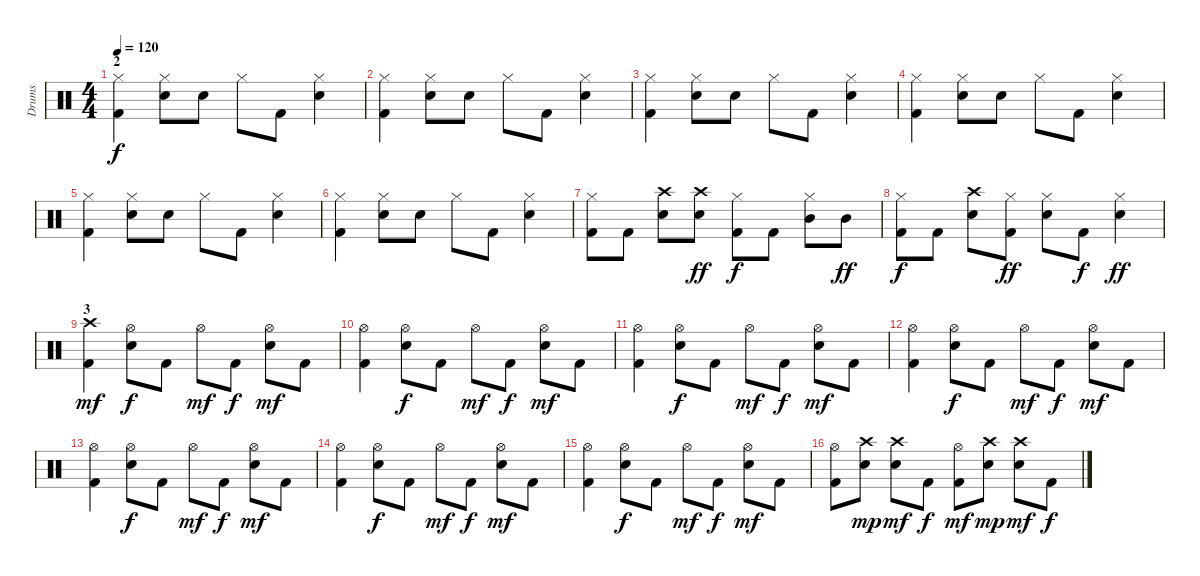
\track ("Drums" "Drums") {instrument percussion}
\staff {score}
\articulation defaults
\ts (4 4)
\section ("" "2")
\tempo 120
\clef neutral
\ks c
("Kick (hit) 2" "Hi-Hat (closed)").4{dy f} ("Hi-Hat (closed)" "Electric Snare (hit)").8 "Electric Snare (hit)".8 "Hi-Hat (closed)".8 "Kick (hit) 2".8 ("Electric Snare (hit)" "Hi-Hat (closed)").4 |
("Kick (hit) 2" "Hi-Hat (closed)").4 ("Hi-Hat (closed)" "Electric Snare (hit)").8 "Electric Snare (hit)".8 "Hi-Hat (closed)".8 "Kick (hit) 2".8 ("Electric Snare (hit)" "Hi-Hat (closed)").4 |
("Kick (hit) 2" "Hi-Hat (closed)").4 ("Hi-Hat (closed)" "Electric Snare (hit)").8 "Electric Snare (hit)".8 "Hi-Hat (closed)".8 "Kick (hit) 2".8 ("Electric Snare (hit)" "Hi-Hat (closed)").4 |
("Kick (hit) 2" "Hi-Hat (closed)").4 ("Hi-Hat (closed)" "Electric Snare (hit)").8 "Electric Snare (hit)".8 "Hi-Hat (closed)".8 "Kick (hit) 2".8 ("Electric Snare (hit)" "Hi-Hat (closed)").4 |
("Kick (hit) 2" "Hi-Hat (closed)").4 ("Hi-Hat (closed)" "Electric Snare (hit)").8 "Electric Snare (hit)".8 "Hi-Hat (closed)".8 "Kick (hit) 2".8 ("Electric Snare (hit)" "Hi-Hat (closed)").4 |
("Kick (hit) 2" "Hi-Hat (closed)").4 ("Hi-Hat (closed)" "Electric Snare (hit)").8 "Electric Snare (hit)".8 "Hi-Hat (closed)".8 "Kick (hit) 2".8 ("Electric Snare (hit)" "Hi-Hat (closed)").4 |
("Kick (hit) 2" "Hi-Hat (closed)").8 "Kick (hit) 2".8 ("Crash high (hit)" "Electric Snare (hit)").8 ("Crash high (hit)" "Electric Snare (hit)").8{dy ff} ("Kick (hit) 2" "Hi-Hat (closed)").8{dy f} "Kick (hit) 2".8 ("Mid Tom (hit)" "Hi-Hat (closed)").8 "Mid Tom (hit)".8{dy ff} |
("Kick (hit) 2" "Hi-Hat (closed)").8{dy f} "Kick (hit) 2".8 ("Crash high (hit)" "Electric Snare (hit)").8 ("Hi-Hat (closed)" "Kick (hit) 2").8{dy ff} ("Hi-Hat (closed)" "Electric Snare (hit)").8 "Kick (hit) 2".8{dy f} ("Hi-Hat (closed)" "Electric Snare (hit)").4{dy ff} |
\section ("" "3")
("Kick (hit) 2" "Crash high (hit)").4{dy mf} ("Hi-Hat (open)" "Electric Snare (hit)").8{dy f} "Kick (hit) 2".8 "Hi-Hat (open)".8{dy mf} "Kick (hit) 2".8{dy f} ("Electric Snare (hit)" "Hi-Hat (open)").8{dy mf} "Kick (hit) 2".8 |
("Kick (hit) 2" "Hi-Hat (open)").4 ("Hi-Hat (open)" "Electric Snare (hit)").8{dy f} "Kick (hit) 2".8 "Hi-Hat (open)".8{dy mf} "Kick (hit) 2".8{dy f} ("Electric Snare (hit)" "Hi-Hat (open)").8{dy mf} "Kick (hit) 2".8 |
("Kick (hit) 2" "Hi-Hat (open)").4 ("Hi-Hat (open)" "Electric Snare (hit)").8{dy f} "Kick (hit) 2".8 "Hi-Hat (open)".8{dy mf} "Kick (hit) 2".8{dy f} ("Electric Snare (hit)" "Hi-Hat (open)").8{dy mf} "Kick (hit) 2".8 |
("Kick (hit) 2" "Hi-Hat (open)").4 ("Hi-Hat (open)" "Electric Snare (hit)").8{dy f} "Kick (hit) 2".8 "Hi-Hat (open)".8{dy mf} "Kick (hit) 2".8{dy f} ("Electric Snare (hit)" "Hi-Hat (open)").8{dy mf} "Kick (hit) 2".8 |
("Kick (hit) 2" "Hi-Hat (open)").4 ("Hi-Hat (open)" "Electric Snare (hit)").8{dy f} "Kick (hit) 2".8 "Hi-Hat (open)".8{dy mf} "Kick (hit) 2".8{dy f} ("Electric Snare (hit)" "Hi-Hat (open)").8{dy mf} "Kick (hit) 2".8 |
("Kick (hit) 2" "Hi-Hat (open)").4 ("Hi-Hat (open)" "Electric Snare (hit)").8{dy f} "Kick (hit) 2".8 "Hi-Hat (open)".8{dy mf} "Kick (hit) 2".8{dy f} ("Electric Snare (hit)" "Hi-Hat (open)").8{dy mf} "Kick (hit) 2".8 |
("Kick (hit) 2" "Hi-Hat (open)").4 ("Hi-Hat (open)" "Electric Snare (hit)").8{dy f} "Kick (hit) 2".8 "Hi-Hat (open)".8{dy mf} "Kick (hit) 2".8{dy f} ("Electric Snare (hit)" "Hi-Hat (open)").8{dy mf} "Kick (hit) 2".8 |
("Kick (hit) 2" "Hi-Hat (open)").8 ("Electric Snare (hit)" "Crash high (hit)").8{dy mp} ("Electric Snare (hit)" "Crash high (hit)").8{dy mf} "Kick (hit) 2".8{dy f} ("Kick (hit) 2" "Hi-Hat (open)").8{dy mf} ("Electric Snare (hit)" "Crash high (hit)").8{dy mp} ("Electric Snare (hit)" "Crash high (hit)").8{dy mf} "Kick (hit) 2".8{dy f}
